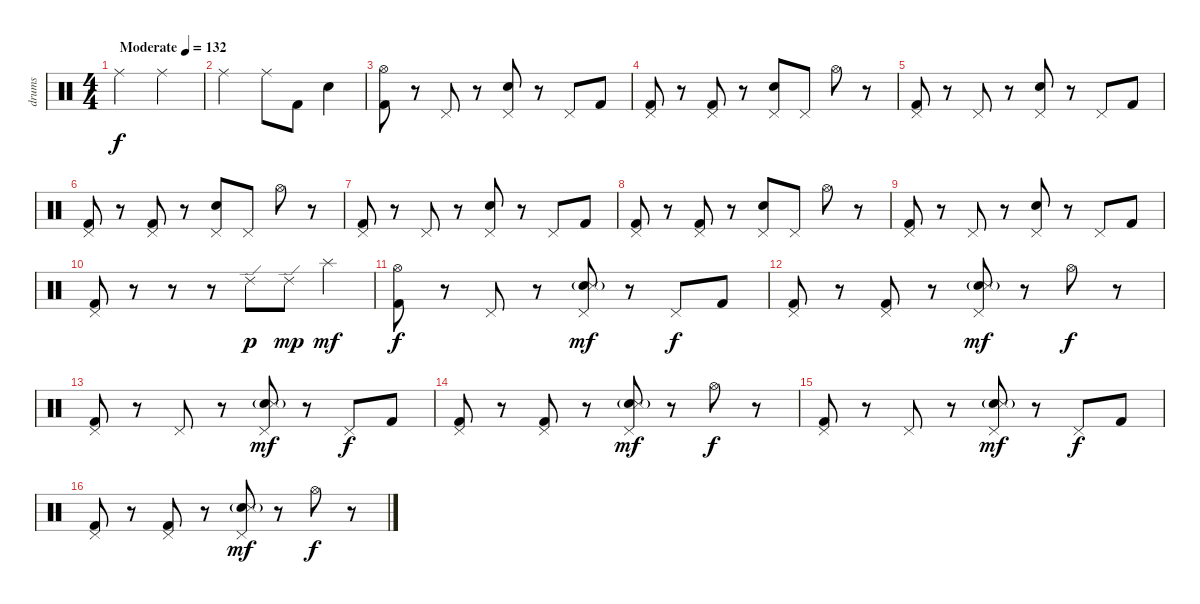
\track ("drums" "drums") {instrument percussion}
\staff {score}
\articulation defaults
\ts (4 4)
\tempo (132 "Moderate")
\clef neutral
\ks c "Ride (middle)".2{dy f} "Ride (middle)".2
|
"Ride (middle)".2 "Ride (middle)".8 "Kick (hit) 2".8 "Snare (hit) 2".4 |
("Hi-Hat (open)" "Kick (hit) 2").8 r.8 "Pedal Hi-Hat (hit)".8 r.8 ("Pedal Hi-Hat (hit)" "Electric Snare (hit)").8 r.8 "Pedal Hi-Hat (hit)".8 "Kick (hit) 2".8 |
("Pedal Hi-Hat (hit)" "Kick (hit) 2").8 r.8 ("Pedal Hi-Hat (hit)" "Kick (hit) 2").8 r.8 ("Pedal Hi-Hat (hit)" "Electric Snare (hit)").8 "Pedal Hi-Hat (hit)".8 "Hi-Hat (open)".8 r.8 |
("Pedal Hi-Hat (hit)" "Kick (hit) 2").8 r.8 "Pedal Hi-Hat (hit)".8 r.8 ("Pedal Hi-Hat (hit)" "Electric Snare (hit)").8 r.8 "Pedal Hi-Hat (hit)".8 "Kick (hit) 2".8 |
("Pedal Hi-Hat (hit)" "Kick (hit) 2").8 r.8 ("Pedal Hi-Hat (hit)" "Kick (hit) 2").8 r.8 ("Pedal Hi-Hat (hit)" "Electric Snare (hit)").8 "Pedal Hi-Hat (hit)".8 "Hi-Hat (open)".8 r.8 |
("Pedal Hi-Hat (hit)" "Kick (hit) 2").8 r.8 "Pedal Hi-Hat (hit)".8 r.8 ("Pedal Hi-Hat (hit)" "Electric Snare (hit)").8 r.8 "Pedal Hi-Hat (hit)".8 "Kick (hit) 2".8 |
("Pedal Hi-Hat (hit)" "Kick (hit) 2").8 r.8 ("Pedal Hi-Hat (hit)" "Kick (hit) 2").8 r.8 ("Pedal Hi-Hat (hit)" "Electric Snare (hit)").8 "Pedal Hi-Hat (hit)".8 "Hi-Hat (open)".8 r.8 |
("Pedal Hi-Hat (hit)" "Kick (hit) 2").8 r.8 "Pedal Hi-Hat (hit)".8 r.8 ("Pedal Hi-Hat (hit)" "Electric Snare (hit)").8 r.8 "Pedal Hi-Hat (hit)".8 "Kick (hit) 2".8 |
("Pedal Hi-Hat (hit)" "Kick (hit) 2").8 r.8 r.8 r.8 "Ride (edge) 2".8{dy p} "Ride (edge) 2".8{dy mp} "Splash (hit)".4{dy mf} |
("Hi-Hat (open)" "Kick (hit) 2").8{dy f} r.8 "Pedal Hi-Hat (hit)".8 r.8 ("Pedal Hi-Hat (hit)" "Electric Snare (hit)"{g} "Snare (side stick) 3").8{dy mf} r.8 "Pedal Hi-Hat (hit)".8{dy f} "Kick (hit) 2".8 |
("Pedal Hi-Hat (hit)" "Kick (hit) 2").8 r.8 ("Pedal Hi-Hat (hit)" "Kick (hit) 2").8 r.8 ("Pedal Hi-Hat (hit)" "Electric Snare (hit)"{g} "Snare (side stick) 3").8{dy mf} r.8 "Hi-Hat (open)".8{dy f} r.8 |
("Pedal Hi-Hat (hit)" "Kick (hit) 2").8 r.8 "Pedal Hi-Hat (hit)".8 r.8 ("Pedal Hi-Hat (hit)" "Electric Snare (hit)"{g} "Snare (side stick) 3").8{dy mf} r.8 "Pedal Hi-Hat (hit)".8{dy f} "Kick (hit) 2".8 |
("Pedal Hi-Hat (hit)" "Kick (hit) 2").8 r.8 ("Pedal Hi-Hat (hit)" "Kick (hit) 2").8 r.8 ("Pedal Hi-Hat (hit)" "Electric Snare (hit)"{g} "Snare (side stick) 3").8{dy mf} r.8 "Hi-Hat (open)".8{dy f} r.8 |
("Pedal Hi-Hat (hit)" "Kick (hit) 2").8 r.8 "Pedal Hi-Hat (hit)".8 r.8 ("Pedal Hi-Hat (hit)" "Electric Snare (hit)"{g} "Snare (side stick) 3").8{dy mf} r.8 "Pedal Hi-Hat (hit)".8{dy f} "Kick (hit) 2".8 |
("Pedal Hi-Hat (hit)" "Kick (hit) 2").8 r.8 ("Pedal Hi-Hat (hit)" "Kick (hit) 2").8 r.8 ("Pedal Hi-Hat (hit)" "Electric Snare (hit)"{g} "Snare (side stick) 3").8{dy mf} r.8 "Hi-Hat (open)".8{dy f} r.8
